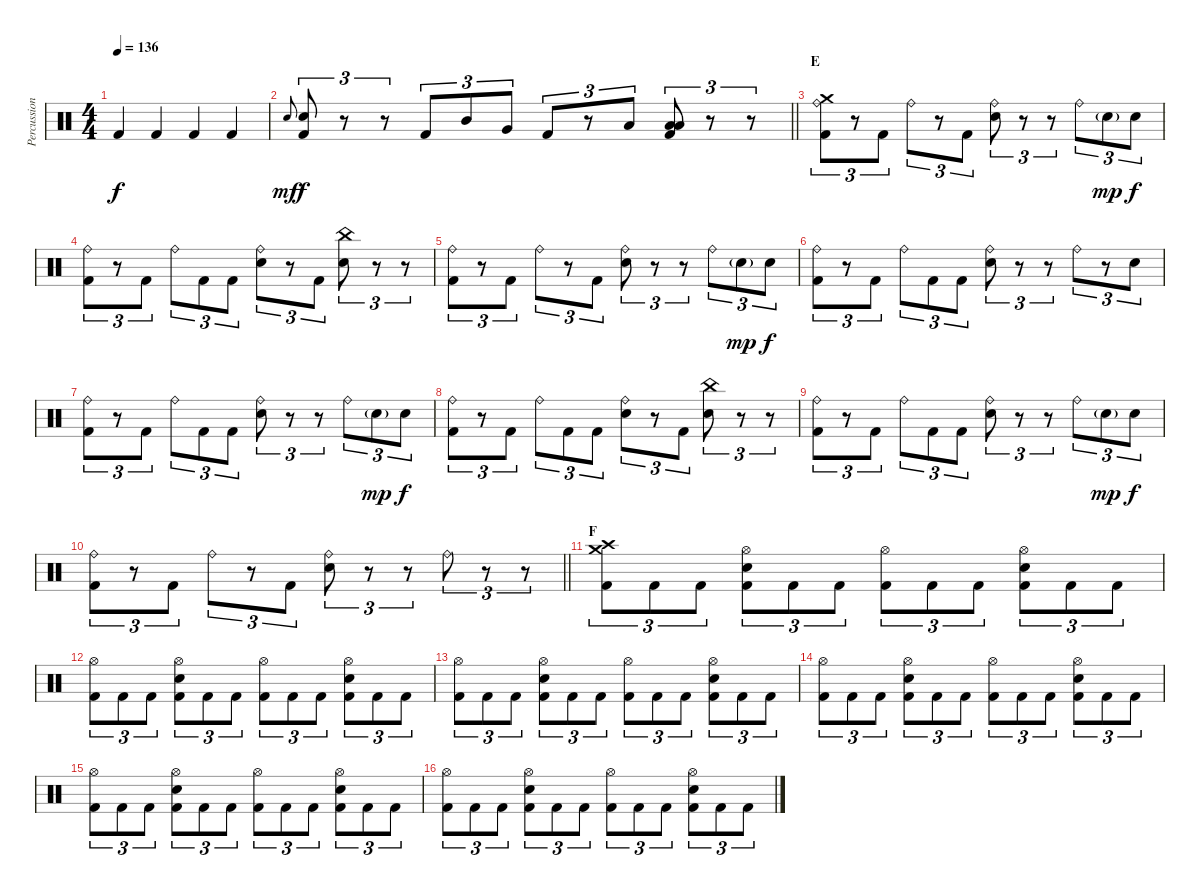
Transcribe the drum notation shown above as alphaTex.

\track ("Percussion" "Percussion") {instrument percussion}
\staff {score}
\articulation defaults
\ts (4 4)
\tempo 136
\clef neutral
\ks c "Kick (hit) 2".4{dy f} "Kick (hit) 2".4 "Kick (hit) 2".4 "Kick (hit) 2".4
|
\barLineRight lightlight "Electric Snare (hit)".8{gr onbeat dy mf}
("Electric Snare (hit)" "Kick (hit) 2").8{tu (3 2) dy f} r.8{tu (3 2)} r.8{tu (3 2)} "Kick (hit) 2".8{tu (3 2)} "Mid Tom (hit)".8{tu (3 2)} "Very Low Tom (hit)".8{tu (3 2)} "Kick (hit) 2".8{tu (3 2)} r.8{tu (3 2)} "Low Tom (hit)".8{tu (3 2)} ("Low Tom (hit)" "Low Floor Tom (hit)" "Kick (hit) 2").8{tu (3 2)} r.8{tu (3 2)} r.8{tu (3 2)} |
\section ("" "E")
("Crash medium (hit)" "Ride (bell)" "Kick (hit) 2").8{tu (3 2)} r.8{tu (3 2)} "Kick (hit) 2".8{tu (3 2)} "Ride (bell)".8{tu (3 2)} r.8{tu (3 2)} "Kick (hit) 2".8{tu (3 2)} ("Ride (bell)" "Electric Snare (hit)").8{tu (3 2)} r.8{tu (3 2)} r.8{tu (3 2)} "Ride (bell)".8{tu (3 2)} "Electric Snare (hit)"{g}.8{tu (3 2) dy mp} "Electric Snare (hit)".8{tu (3 2) dy f} |
("Ride (bell)" "Kick (hit) 2").8{tu (3 2)} r.8{tu (3 2)} "Kick (hit) 2".8{tu (3 2)} "Ride (bell)".8{tu (3 2)} "Kick (hit) 2".8{tu (3 2)} "Kick (hit) 2".8{tu (3 2)} ("Ride (bell)" "Electric Snare (hit)").8{tu (3 2)} r.8{tu (3 2)} "Kick (hit) 2".8{tu (3 2)} ("China (hit)" "Electric Snare (hit)").8{tu (3 2)} r.8{tu (3 2)} r.8{tu (3 2)} |
("Ride (bell)" "Kick (hit) 2").8{tu (3 2)} r.8{tu (3 2)} "Kick (hit) 2".8{tu (3 2)} "Ride (bell)".8{tu (3 2)} r.8{tu (3 2)} "Kick (hit) 2".8{tu (3 2)} ("Ride (bell)" "Electric Snare (hit)").8{tu (3 2)} r.8{tu (3 2)} r.8{tu (3 2)} "Ride (bell)".8{tu (3 2)} "Electric Snare (hit)"{g}.8{tu (3 2) dy mp} "Electric Snare (hit)".8{tu (3 2) dy f} |
("Ride (bell)" "Kick (hit) 2").8{tu (3 2)} r.8{tu (3 2)} "Kick (hit) 2".8{tu (3 2)} "Ride (bell)".8{tu (3 2)} "Kick (hit) 2".8{tu (3 2)} "Kick (hit) 2".8{tu (3 2)} ("Ride (bell)" "Electric Snare (hit)").8{tu (3 2)} r.8{tu (3 2)} r.8{tu (3 2)} "Ride (bell)".8{tu (3 2)} r.8{tu (3 2)} "Electric Snare (hit)".8{tu (3 2)} |
("Ride (bell)" "Kick (hit) 2").8{tu (3 2)} r.8{tu (3 2)} "Kick (hit) 2".8{tu (3 2)} "Ride (bell)".8{tu (3 2)} "Kick (hit) 2".8{tu (3 2)} "Kick (hit) 2".8{tu (3 2)} ("Ride (bell)" "Electric Snare (hit)").8{tu (3 2)} r.8{tu (3 2)} r.8{tu (3 2)} "Ride (bell)".8{tu (3 2)} "Electric Snare (hit)"{g}.8{tu (3 2) dy mp} "Electric Snare (hit)".8{tu (3 2) dy f} |
("Ride (bell)" "Kick (hit) 2").8{tu (3 2)} r.8{tu (3 2)} "Kick (hit) 2".8{tu (3 2)} "Ride (bell)".8{tu (3 2)} "Kick (hit) 2".8{tu (3 2)} "Kick (hit) 2".8{tu (3 2)} ("Ride (bell)" "Electric Snare (hit)").8{tu (3 2)} r.8{tu (3 2)} "Kick (hit) 2".8{tu (3 2)} ("China (hit)" "Electric Snare (hit)").8{tu (3 2)} r.8{tu (3 2)} r.8{tu (3 2)} |
("Ride (bell)" "Kick (hit) 2").8{tu (3 2)} r.8{tu (3 2)} "Kick (hit) 2".8{tu (3 2)} "Ride (bell)".8{tu (3 2)} "Kick (hit) 2".8{tu (3 2)} "Kick (hit) 2".8{tu (3 2)} ("Ride (bell)" "Electric Snare (hit)").8{tu (3 2)} r.8{tu (3 2)} r.8{tu (3 2)} "Ride (bell)".8{tu (3 2)} "Electric Snare (hit)"{g}.8{tu (3 2) dy mp} "Electric Snare (hit)".8{tu (3 2) dy f} |
\barLineRight lightlight
("Ride (bell)" "Kick (hit) 2").8{tu (3 2)} r.8{tu (3 2)} "Kick (hit) 2".8{tu (3 2)} "Ride (bell)".8{tu (3 2)} r.8{tu (3 2)} "Kick (hit) 2".8{tu (3 2)} ("Ride (bell)" "Electric Snare (hit)").8{tu (3 2)} r.8{tu (3 2)} r.8{tu (3 2)} "Ride (bell)".8{tu (3 2)} r.8{tu (3 2)} r.8{tu (3 2)} |
\section ("" "F")
("Crash medium (hit)" "Crash high (hit)" "Kick (hit) 2").8{tu (3 2)} "Kick (hit) 2".8{tu (3 2)} "Kick (hit) 2".8{tu (3 2)} ("Hi-Hat (open)" "Electric Snare (hit)" "Kick (hit) 2").8{tu (3 2)} "Kick (hit) 2".8{tu (3 2)} "Kick (hit) 2".8{tu (3 2)} ("Hi-Hat (open)" "Kick (hit) 2").8{tu (3 2)} "Kick (hit) 2".8{tu (3 2)} "Kick (hit) 2".8{tu (3 2)} ("Hi-Hat (open)" "Electric Snare (hit)" "Kick (hit) 2").8{tu (3 2)} "Kick (hit) 2".8{tu (3 2)} "Kick (hit) 2".8{tu (3 2)} |
("Hi-Hat (open)" "Kick (hit) 2").8{tu (3 2)} "Kick (hit) 2".8{tu (3 2)} "Kick (hit) 2".8{tu (3 2)} ("Hi-Hat (open)" "Electric Snare (hit)" "Kick (hit) 2").8{tu (3 2)} "Kick (hit) 2".8{tu (3 2)} "Kick (hit) 2".8{tu (3 2)} ("Hi-Hat (open)" "Kick (hit) 2").8{tu (3 2)} "Kick (hit) 2".8{tu (3 2)} "Kick (hit) 2".8{tu (3 2)} ("Hi-Hat (open)" "Electric Snare (hit)" "Kick (hit) 2").8{tu (3 2)} "Kick (hit) 2".8{tu (3 2)} "Kick (hit) 2".8{tu (3 2)} |
("Hi-Hat (open)" "Kick (hit) 2").8{tu (3 2)} "Kick (hit) 2".8{tu (3 2)} "Kick (hit) 2".8{tu (3 2)} ("Hi-Hat (open)" "Electric Snare (hit)" "Kick (hit) 2").8{tu (3 2)} "Kick (hit) 2".8{tu (3 2)} "Kick (hit) 2".8{tu (3 2)} ("Hi-Hat (open)" "Kick (hit) 2").8{tu (3 2)} "Kick (hit) 2".8{tu (3 2)} "Kick (hit) 2".8{tu (3 2)} ("Hi-Hat (open)" "Electric Snare (hit)" "Kick (hit) 2").8{tu (3 2)} "Kick (hit) 2".8{tu (3 2)} "Kick (hit) 2".8{tu (3 2)} |
("Hi-Hat (open)" "Kick (hit) 2").8{tu (3 2)} "Kick (hit) 2".8{tu (3 2)} "Kick (hit) 2".8{tu (3 2)} ("Hi-Hat (open)" "Electric Snare (hit)" "Kick (hit) 2").8{tu (3 2)} "Kick (hit) 2".8{tu (3 2)} "Kick (hit) 2".8{tu (3 2)} ("Hi-Hat (open)" "Kick (hit) 2").8{tu (3 2)} "Kick (hit) 2".8{tu (3 2)} "Kick (hit) 2".8{tu (3 2)} ("Hi-Hat (open)" "Electric Snare (hit)" "Kick (hit) 2").8{tu (3 2)} "Kick (hit) 2".8{tu (3 2)} "Kick (hit) 2".8{tu (3 2)} |
("Hi-Hat (open)" "Kick (hit) 2").8{tu (3 2)} "Kick (hit) 2".8{tu (3 2)} "Kick (hit) 2".8{tu (3 2)} ("Hi-Hat (open)" "Electric Snare (hit)" "Kick (hit) 2").8{tu (3 2)} "Kick (hit) 2".8{tu (3 2)} "Kick (hit) 2".8{tu (3 2)} ("Hi-Hat (open)" "Kick (hit) 2").8{tu (3 2)} "Kick (hit) 2".8{tu (3 2)} "Kick (hit) 2".8{tu (3 2)} ("Hi-Hat (open)" "Electric Snare (hit)" "Kick (hit) 2").8{tu (3 2)} "Kick (hit) 2".8{tu (3 2)} "Kick (hit) 2".8{tu (3 2)} |
("Hi-Hat (open)" "Kick (hit) 2").8{tu (3 2)} "Kick (hit) 2".8{tu (3 2)} "Kick (hit) 2".8{tu (3 2)} ("Hi-Hat (open)" "Electric Snare (hit)" "Kick (hit) 2").8{tu (3 2)} "Kick (hit) 2".8{tu (3 2)} "Kick (hit) 2".8{tu (3 2)} ("Hi-Hat (open)" "Kick (hit) 2").8{tu (3 2)} "Kick (hit) 2".8{tu (3 2)} "Kick (hit) 2".8{tu (3 2)} ("Hi-Hat (open)" "Electric Snare (hit)" "Kick (hit) 2").8{tu (3 2)} "Kick (hit) 2".8{tu (3 2)} "Kick (hit) 2".8{tu (3 2)}
